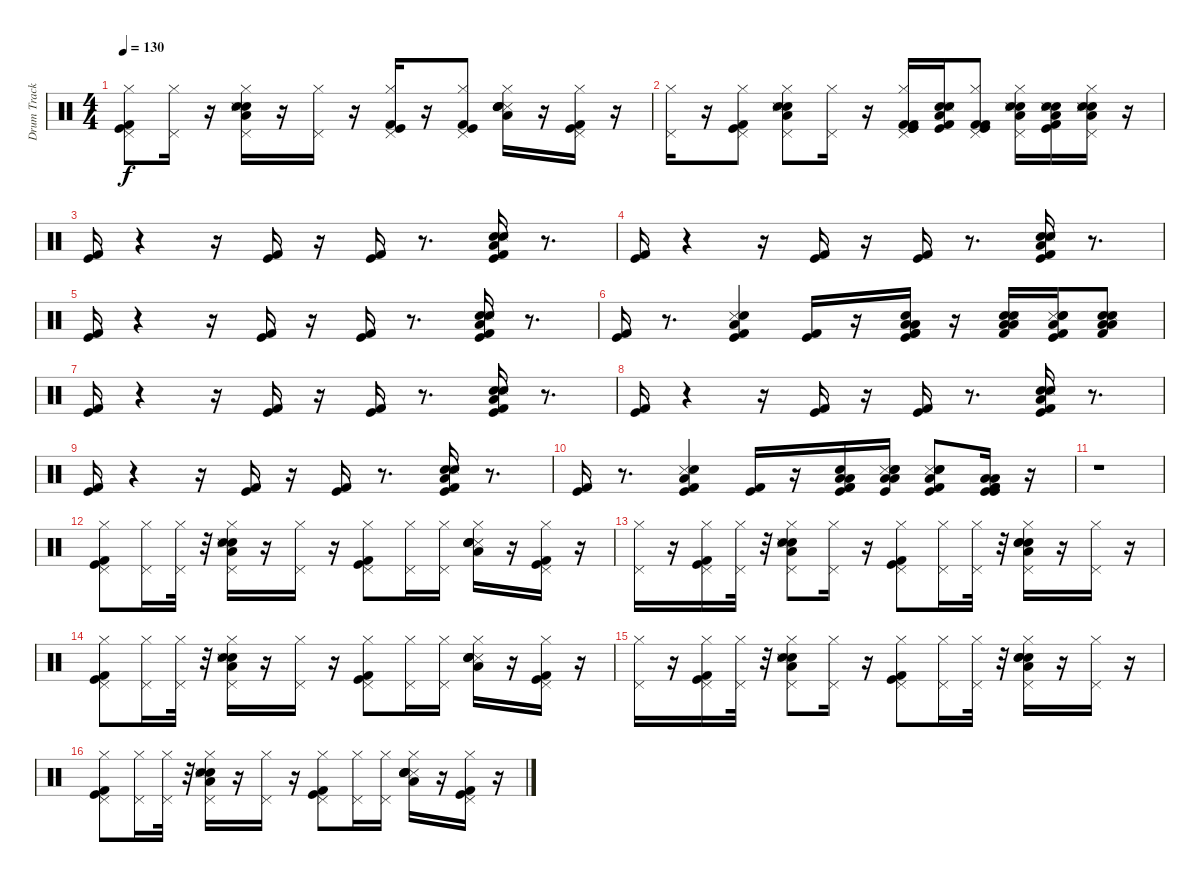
\track ("Drum Track" "Drum Track") {instrument percussion}
\staff {score}
\articulation defaults
\ts (4 4)
\tempo 130
\clef neutral
\ks c
("Kick (hit) 2" "Kick (hit)" "Hi-Hat (closed)" "Pedal Hi-Hat (hit)").8{dy f} ("Hi-Hat (closed)" "Pedal Hi-Hat (hit)").16 r.16 ("Electric Snare (hit)" "Snare (hit) 2" "Snare (side stick) 3" "Hi-Hat (closed)" "Pedal Hi-Hat (hit)" "Low Floor Tom (hit)").16 r.16 ("Hi-Hat (closed)" "Pedal Hi-Hat (hit)").16 r.16 ("Kick (hit) 2" "Kick (hit)" "Hi-Hat (closed)" "Pedal Hi-Hat (hit)").16 r.16 ("Kick (hit) 2" "Kick (hit)" "Hi-Hat (closed)" "Pedal Hi-Hat (hit)").8 ("Snare (side stick) 3" "Snare (hit) 2" "Electric Snare (hit)" "Electric Snare (hit)" "Low Floor Tom (hit)" "Hi-Hat (closed)").16 r.16 ("Kick (hit) 2" "Kick (hit)" "Hi-Hat (closed)" "Pedal Hi-Hat (hit)").16 r.16 |
("Pedal Hi-Hat (hit)" "Hi-Hat (closed)").16 r.16 ("Kick (hit) 2" "Kick (hit)" "Hi-Hat (closed)" "Pedal Hi-Hat (hit)").8 ("Hi-Hat (closed)" "Pedal Hi-Hat (hit)" "Low Floor Tom (hit)" "Electric Snare (hit)" "Snare (hit) 2" "Snare (side stick) 3").8 ("Hi-Hat (closed)" "Pedal Hi-Hat (hit)").16 r.16 ("Hi-Hat (closed)" "Pedal Hi-Hat (hit)" "Kick (hit) 2" "Kick (hit)" "Kick (hit)" "Kick (hit) 2").16 ("Low Floor Tom (hit)" "Electric Snare (hit)" "Snare (hit) 2" "Snare (side stick) 3" "Kick (hit) 2" "Kick (hit)").16 ("Hi-Hat (closed)" "Pedal Hi-Hat (hit)" "Kick (hit) 2" "Kick (hit)" "Kick (hit) 2").8 ("Hi-Hat (closed)" "Pedal Hi-Hat (hit)" "Low Floor Tom (hit)" "Electric Snare (hit)" "Snare (hit) 2" "Snare (side stick) 3").16 ("Low Floor Tom (hit)" "Electric Snare (hit)" "Snare (hit) 2" "Snare (side stick) 3" "Kick (hit) 2" "Kick (hit)").16 ("Hi-Hat (closed)" "Pedal Hi-Hat (hit)" "Low Floor Tom (hit)" "Electric Snare (hit)" "Snare (hit) 2" "Snare (side stick) 3").16 r.16 |
("Kick (hit) 2" "Kick (hit)").16 r.4 r.16 ("Kick (hit) 2" "Kick (hit)").16 r.16 ("Kick (hit) 2" "Kick (hit)").16 r.8{d} ("Snare (hit) 2" "Electric Snare (hit)" "Snare (side stick) 3" "Low Floor Tom (hit)" "Kick (hit) 2" "Kick (hit)").16 r.8{d} |
("Kick (hit)" "Kick (hit) 2").16 r.4 r.16 ("Kick (hit) 2" "Kick (hit)").16 r.16 ("Kick (hit) 2" "Kick (hit)").16 r.8{d} ("Snare (hit) 2" "Electric Snare (hit)" "Snare (side stick) 3" "Low Floor Tom (hit)" "Kick (hit) 2" "Kick (hit)").16 r.8{d} |
("Kick (hit)" "Kick (hit) 2").16 r.4 r.16 ("Kick (hit) 2" "Kick (hit)").16 r.16 ("Kick (hit) 2" "Kick (hit)").16 r.8{d} ("Snare (hit) 2" "Electric Snare (hit)" "Snare (side stick) 3" "Low Floor Tom (hit)" "Kick (hit) 2" "Kick (hit)").16 r.8{d} |
("Kick (hit) 2" "Kick (hit)").16 r.8{d} ("Kick (hit) 2" "Kick (hit)" "Snare (side stick) 3" "Snare (hit) 2" "Low Floor Tom (hit)").4 ("Kick (hit)" "Kick (hit) 2").16 r.16 ("Kick (hit) 2" "Kick (hit)" "Kick (hit) 2" "Low Tom (hit)" "Low Floor Tom (hit)" "Electric Snare (hit)").16 r.16 ("Low Tom (hit)" "Low Floor Tom (hit)" "Electric Snare (hit)" "Snare (hit) 2" "Snare (side stick) 3" "Kick (hit) 2").16 ("Kick (hit)" "Kick (hit) 2" "Snare (side stick) 3" "Snare (hit) 2" "Electric Snare (hit)" "Low Floor Tom (hit)").16 ("Low Tom (hit)" "Low Floor Tom (hit)" "Electric Snare (hit)" "Snare (hit) 2" "Snare (side stick) 3" "Kick (hit) 2").8 |
("Kick (hit)" "Kick (hit) 2").16 r.4 r.16 ("Kick (hit) 2" "Kick (hit)").16 r.16 ("Kick (hit) 2" "Kick (hit)").16 r.8{d} ("Snare (hit) 2" "Electric Snare (hit)" "Snare (side stick) 3" "Low Floor Tom (hit)" "Kick (hit) 2" "Kick (hit)").16 r.8{d} |
("Kick (hit)" "Kick (hit) 2").16 r.4 r.16 ("Kick (hit) 2" "Kick (hit)").16 r.16 ("Kick (hit) 2" "Kick (hit)").16 r.8{d} ("Snare (hit) 2" "Electric Snare (hit)" "Snare (side stick) 3" "Low Floor Tom (hit)" "Kick (hit) 2" "Kick (hit)").16 r.8{d} |
("Kick (hit)" "Kick (hit) 2").16 r.4 r.16 ("Kick (hit) 2" "Kick (hit)").16 r.16 ("Kick (hit) 2" "Kick (hit)").16 r.8{d} ("Snare (hit) 2" "Electric Snare (hit)" "Snare (side stick) 3" "Low Floor Tom (hit)" "Kick (hit) 2" "Kick (hit)").16 r.8{d} |
("Kick (hit) 2" "Kick (hit)").16 r.8{d} ("Kick (hit) 2" "Kick (hit)" "Snare (side stick) 3" "Snare (hit) 2" "Low Floor Tom (hit)").4 ("Kick (hit)" "Kick (hit) 2").16 r.16 ("Kick (hit) 2" "Kick (hit)" "Kick (hit) 2" "Low Tom (hit)" "Low Floor Tom (hit)" "Electric Snare (hit)").16 ("Snare (side stick) 3" "Snare (hit) 2" "Electric Snare (hit)" "Low Floor Tom (hit)" "Low Tom (hit)" "Kick (hit)").16 ("Low Tom (hit)" "Kick (hit)" "Kick (hit) 2" "Snare (side stick) 3" "Snare (hit) 2" "Electric Snare (hit)").8 ("Kick (hit)" "Kick (hit) 2" "Low Tom (hit)" "Kick (hit)" "Kick (hit) 2" "Low Floor Tom (hit)").16 r.16 |
r.1 |
("Kick (hit) 2" "Kick (hit)" "Hi-Hat (closed)" "Pedal Hi-Hat (hit)").8 ("Hi-Hat (closed)" "Pedal Hi-Hat (hit)").16 ("Hi-Hat (closed)" "Pedal Hi-Hat (hit)").32 r.32 ("Electric Snare (hit)" "Snare (hit) 2" "Snare (side stick) 3" "Hi-Hat (closed)" "Pedal Hi-Hat (hit)" "Low Floor Tom (hit)").16 r.16 ("Hi-Hat (closed)" "Pedal Hi-Hat (hit)").16 r.16 ("Kick (hit) 2" "Kick (hit)" "Hi-Hat (closed)" "Pedal Hi-Hat (hit)").8 ("Hi-Hat (closed)" "Pedal Hi-Hat (hit)").16 ("Pedal Hi-Hat (hit)" "Hi-Hat (closed)").16 ("Snare (side stick) 3" "Snare (hit) 2" "Electric Snare (hit)" "Electric Snare (hit)" "Low Floor Tom (hit)" "Hi-Hat (closed)").16 r.16 ("Kick (hit) 2" "Kick (hit)" "Hi-Hat (closed)" "Pedal Hi-Hat (hit)").16 r.16 |
("Pedal Hi-Hat (hit)" "Hi-Hat (closed)").16 r.16 ("Kick (hit) 2" "Kick (hit)" "Pedal Hi-Hat (hit)" "Hi-Hat (closed)").16 ("Pedal Hi-Hat (hit)" "Hi-Hat (closed)").32 r.32 ("Hi-Hat (closed)" "Pedal Hi-Hat (hit)" "Low Floor Tom (hit)" "Electric Snare (hit)" "Snare (hit) 2" "Snare (side stick) 3").8 ("Hi-Hat (closed)" "Pedal Hi-Hat (hit)").16 r.16 ("Hi-Hat (closed)" "Pedal Hi-Hat (hit)" "Kick (hit) 2" "Kick (hit)").8 ("Hi-Hat (closed)" "Pedal Hi-Hat (hit)").16 ("Pedal Hi-Hat (hit)" "Hi-Hat (closed)").32 r.32 ("Hi-Hat (closed)" "Pedal Hi-Hat (hit)" "Low Floor Tom (hit)" "Electric Snare (hit)" "Electric Snare (hit)" "Snare (hit) 2").16 r.16 ("Hi-Hat (closed)" "Pedal Hi-Hat (hit)").16 r.16 |
("Kick (hit) 2" "Kick (hit)" "Hi-Hat (closed)" "Pedal Hi-Hat (hit)").8 ("Hi-Hat (closed)" "Pedal Hi-Hat (hit)").16 ("Hi-Hat (closed)" "Pedal Hi-Hat (hit)").32 r.32 ("Electric Snare (hit)" "Snare (hit) 2" "Snare (side stick) 3" "Hi-Hat (closed)" "Pedal Hi-Hat (hit)" "Low Floor Tom (hit)").16 r.16 ("Hi-Hat (closed)" "Pedal Hi-Hat (hit)").16 r.16 ("Kick (hit) 2" "Kick (hit)" "Hi-Hat (closed)" "Pedal Hi-Hat (hit)").8 ("Hi-Hat (closed)" "Pedal Hi-Hat (hit)").16 ("Pedal Hi-Hat (hit)" "Hi-Hat (closed)").16 ("Snare (side stick) 3" "Snare (hit) 2" "Electric Snare (hit)" "Electric Snare (hit)" "Low Floor Tom (hit)" "Hi-Hat (closed)").16 r.16 ("Kick (hit) 2" "Kick (hit)" "Hi-Hat (closed)" "Pedal Hi-Hat (hit)").16 r.16 |
("Pedal Hi-Hat (hit)" "Hi-Hat (closed)").16 r.16 ("Kick (hit) 2" "Kick (hit)" "Pedal Hi-Hat (hit)" "Hi-Hat (closed)").16 ("Pedal Hi-Hat (hit)" "Hi-Hat (closed)").32 r.32 ("Hi-Hat (closed)" "Pedal Hi-Hat (hit)" "Low Floor Tom (hit)" "Electric Snare (hit)" "Snare (hit) 2" "Snare (side stick) 3").8 ("Hi-Hat (closed)" "Pedal Hi-Hat (hit)").16 r.16 ("Hi-Hat (closed)" "Pedal Hi-Hat (hit)" "Kick (hit) 2" "Kick (hit)").8 ("Hi-Hat (closed)" "Pedal Hi-Hat (hit)").16 ("Pedal Hi-Hat (hit)" "Hi-Hat (closed)").32 r.32 ("Hi-Hat (closed)" "Pedal Hi-Hat (hit)" "Low Floor Tom (hit)" "Electric Snare (hit)" "Electric Snare (hit)" "Snare (hit) 2").16 r.16 ("Hi-Hat (closed)" "Pedal Hi-Hat (hit)").16 r.16 |
("Kick (hit) 2" "Kick (hit)" "Hi-Hat (closed)" "Pedal Hi-Hat (hit)").8 ("Hi-Hat (closed)" "Pedal Hi-Hat (hit)").16 ("Hi-Hat (closed)" "Pedal Hi-Hat (hit)").32 r.32 ("Electric Snare (hit)" "Snare (hit) 2" "Snare (side stick) 3" "Hi-Hat (closed)" "Pedal Hi-Hat (hit)" "Low Floor Tom (hit)").16 r.16 ("Hi-Hat (closed)" "Pedal Hi-Hat (hit)").16 r.16 ("Kick (hit) 2" "Kick (hit)" "Hi-Hat (closed)" "Pedal Hi-Hat (hit)").8 ("Hi-Hat (closed)" "Pedal Hi-Hat (hit)").16 ("Pedal Hi-Hat (hit)" "Hi-Hat (closed)").16 ("Snare (side stick) 3" "Snare (hit) 2" "Electric Snare (hit)" "Electric Snare (hit)" "Low Floor Tom (hit)" "Hi-Hat (closed)").16 r.16 ("Kick (hit) 2" "Kick (hit)" "Hi-Hat (closed)" "Pedal Hi-Hat (hit)").16 r.16
